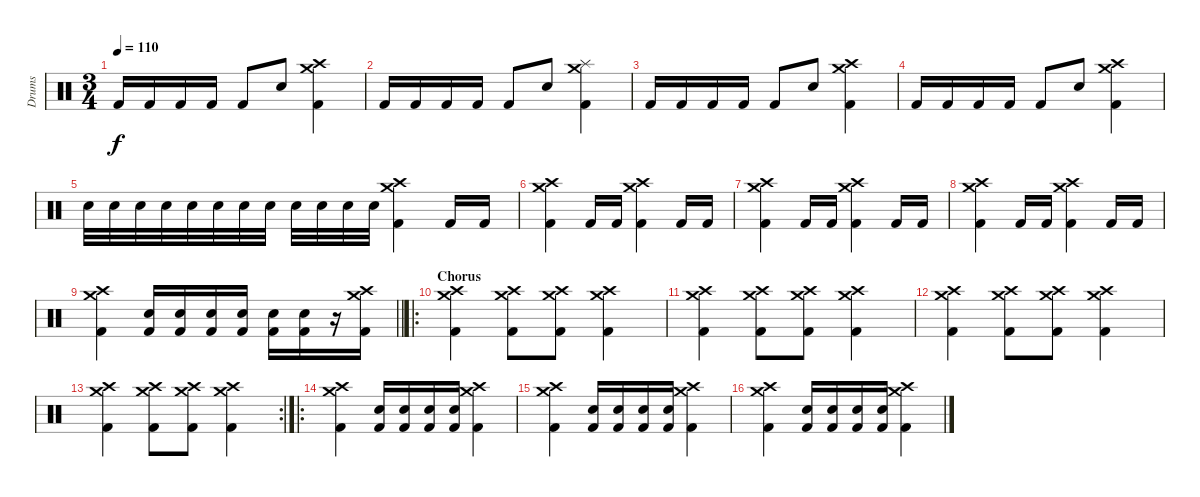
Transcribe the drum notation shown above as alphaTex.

\track ("Drums" "Drums") {instrument percussion}
\staff {score}
\articulation defaults
\ts (3 4)
\tempo 110
\clef neutral
\ks c "Kick (hit) 2".16{dy f} "Kick (hit) 2".16 "Kick (hit) 2".16 "Kick (hit) 2".16 "Kick (hit) 2".8 "Electric Snare (hit)".8
("Crash high (hit)" "Crash medium (hit)" "Kick (hit) 2").4 |
"Kick (hit) 2".16 "Kick (hit) 2".16 "Kick (hit) 2".16 "Kick (hit) 2".16 "Kick (hit) 2".8 "Electric Snare (hit)".8 ("Crash medium (hit)" "Splash (hit)" "Kick (hit) 2").4 |
"Kick (hit) 2".16 "Kick (hit) 2".16 "Kick (hit) 2".16 "Kick (hit) 2".16 "Kick (hit) 2".8 "Electric Snare (hit)".8 ("Crash high (hit)" "Crash medium (hit)" "Kick (hit) 2").4 |
"Kick (hit) 2".16 "Kick (hit) 2".16 "Kick (hit) 2".16 "Kick (hit) 2".16 "Kick (hit) 2".8 "Electric Snare (hit)".8 ("Crash high (hit)" "Crash medium (hit)" "Kick (hit) 2").4 |
"Electric Snare (hit)".32 "Electric Snare (hit)".32 "Electric Snare (hit)".32 "Electric Snare (hit)".32 "Electric Snare (hit)".32 "Electric Snare (hit)".32 "Electric Snare (hit)".32 "Electric Snare (hit)".32 "Electric Snare (hit)".32 "Electric Snare (hit)".32 "Electric Snare (hit)".32 "Electric Snare (hit)".32 ("Crash high (hit)" "Crash medium (hit)" "Kick (hit) 2").4 "Kick (hit) 2".16 "Kick (hit) 2".16 |
("Crash high (hit)" "Crash medium (hit)" "Kick (hit) 2").4 "Kick (hit) 2".16 "Kick (hit) 2".16 ("Crash high (hit)" "Crash medium (hit)" "Kick (hit) 2").4 "Kick (hit) 2".16 "Kick (hit) 2".16 |
("Crash high (hit)" "Crash medium (hit)" "Kick (hit) 2").4 "Kick (hit) 2".16 "Kick (hit) 2".16 ("Crash high (hit)" "Crash medium (hit)" "Kick (hit) 2").4 "Kick (hit) 2".16 "Kick (hit) 2".16 |
("Crash high (hit)" "Crash medium (hit)" "Kick (hit) 2").4 "Kick (hit) 2".16 "Kick (hit) 2".16 ("Crash high (hit)" "Crash medium (hit)" "Kick (hit) 2").4 "Kick (hit) 2".16 "Kick (hit) 2".16 |
\barLineRight lightlight
("Crash high (hit)" "Crash medium (hit)" "Kick (hit) 2").4 ("Electric Snare (hit)" "Kick (hit) 2").16 ("Electric Snare (hit)" "Kick (hit) 2").16 ("Electric Snare (hit)" "Kick (hit) 2").16 ("Electric Snare (hit)" "Kick (hit) 2").16 ("Electric Snare (hit)" "Kick (hit) 2").16 ("Electric Snare (hit)" "Kick (hit) 2").16 r.16 ("Crash high (hit)" "Crash medium (hit)" "Kick (hit) 2").16 |
\ro
\section ("" "Chorus")
("Crash high (hit)" "Crash medium (hit)" "Kick (hit) 2").4 ("Crash high (hit)" "Crash medium (hit)" "Kick (hit) 2").8 ("Crash high (hit)" "Crash medium (hit)" "Kick (hit) 2").8 ("Crash high (hit)" "Crash medium (hit)" "Kick (hit) 2").4 |
("Crash high (hit)" "Crash medium (hit)" "Kick (hit) 2").4 ("Crash high (hit)" "Crash medium (hit)" "Kick (hit) 2").8 ("Crash high (hit)" "Crash medium (hit)" "Kick (hit) 2").8 ("Crash high (hit)" "Crash medium (hit)" "Kick (hit) 2").4 |
("Crash high (hit)" "Crash medium (hit)" "Kick (hit) 2").4 ("Crash high (hit)" "Crash medium (hit)" "Kick (hit) 2").8 ("Crash high (hit)" "Crash medium (hit)" "Kick (hit) 2").8 ("Crash high (hit)" "Crash medium (hit)" "Kick (hit) 2").4 |
\rc 2
("Crash high (hit)" "Crash medium (hit)" "Kick (hit) 2").4 ("Crash high (hit)" "Crash medium (hit)" "Kick (hit) 2").8 ("Crash high (hit)" "Crash medium (hit)" "Kick (hit) 2").8 ("Crash high (hit)" "Crash medium (hit)" "Kick (hit) 2").4 |
\ro
("Crash high (hit)" "Crash medium (hit)" "Kick (hit) 2").4 ("Electric Snare (hit)" "Kick (hit) 2").16 ("Electric Snare (hit)" "Kick (hit) 2").16 ("Electric Snare (hit)" "Kick (hit) 2").16 ("Electric Snare (hit)" "Kick (hit) 2").16 ("Crash high (hit)" "Crash medium (hit)" "Kick (hit) 2").4 |
("Crash high (hit)" "Crash medium (hit)" "Kick (hit) 2").4 ("Electric Snare (hit)" "Kick (hit) 2").16 ("Electric Snare (hit)" "Kick (hit) 2").16 ("Electric Snare (hit)" "Kick (hit) 2").16 ("Electric Snare (hit)" "Kick (hit) 2").16 ("Crash high (hit)" "Crash medium (hit)" "Kick (hit) 2").4 |
("Crash high (hit)" "Crash medium (hit)" "Kick (hit) 2").4 ("Electric Snare (hit)" "Kick (hit) 2").16 ("Electric Snare (hit)" "Kick (hit) 2").16 ("Electric Snare (hit)" "Kick (hit) 2").16 ("Electric Snare (hit)" "Kick (hit) 2").16 ("Crash high (hit)" "Crash medium (hit)" "Kick (hit) 2").4
